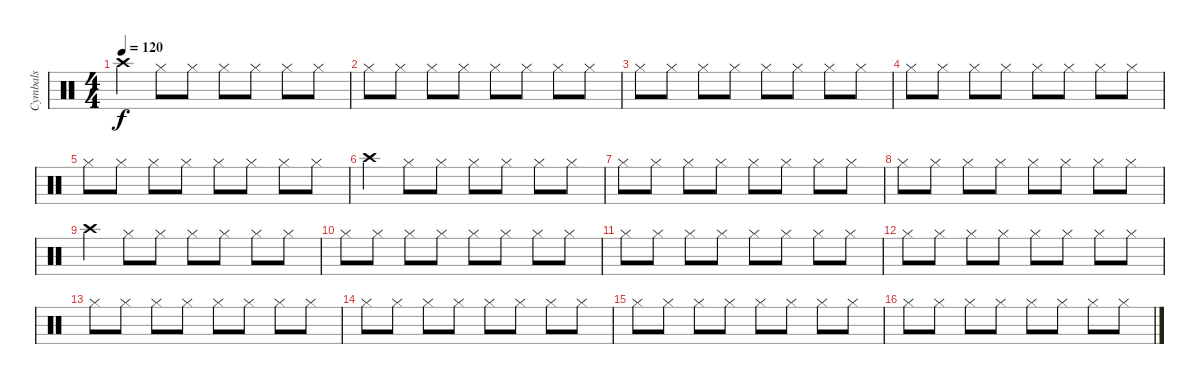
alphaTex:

\track ("Cymbals" "Cymbals") {instrument percussion}
\staff {score}
\articulation defaults
\ts (4 4)
\tempo 120
\clef neutral
\ks c "Crash high (hit)".4{dy f} "Hi-Hat (closed)".8 "Hi-Hat (closed)".8 "Hi-Hat (closed)".8 "Hi-Hat (closed)".8 "Hi-Hat (closed)".8 "Hi-Hat (closed)".8
|
"Hi-Hat (closed)".8 "Hi-Hat (closed)".8 "Hi-Hat (closed)".8 "Hi-Hat (closed)".8 "Hi-Hat (closed)".8 "Hi-Hat (closed)".8 "Hi-Hat (closed)".8 "Hi-Hat (closed)".8 |
"Hi-Hat (closed)".8 "Hi-Hat (closed)".8 "Hi-Hat (closed)".8 "Hi-Hat (closed)".8 "Hi-Hat (closed)".8 "Hi-Hat (closed)".8 "Hi-Hat (closed)".8 "Hi-Hat (closed)".8 |
"Hi-Hat (closed)".8 "Hi-Hat (closed)".8 "Hi-Hat (closed)".8 "Hi-Hat (closed)".8 "Hi-Hat (closed)".8 "Hi-Hat (closed)".8 "Hi-Hat (closed)".8 "Hi-Hat (closed)".8 |
"Hi-Hat (closed)".8 "Hi-Hat (closed)".8 "Hi-Hat (closed)".8 "Hi-Hat (closed)".8 "Hi-Hat (closed)".8 "Hi-Hat (closed)".8 "Hi-Hat (closed)".8 "Hi-Hat (closed)".8 |
"Crash high (hit)".4 "Hi-Hat (closed)".8 "Hi-Hat (closed)".8 "Hi-Hat (closed)".8 "Hi-Hat (closed)".8 "Hi-Hat (closed)".8 "Hi-Hat (closed)".8 |
"Hi-Hat (closed)".8 "Hi-Hat (closed)".8 "Hi-Hat (closed)".8 "Hi-Hat (closed)".8 "Hi-Hat (closed)".8 "Hi-Hat (closed)".8 "Hi-Hat (closed)".8 "Hi-Hat (closed)".8 |
"Hi-Hat (closed)".8 "Hi-Hat (closed)".8 "Hi-Hat (closed)".8 "Hi-Hat (closed)".8 "Hi-Hat (closed)".8 "Hi-Hat (closed)".8 "Hi-Hat (closed)".8 "Hi-Hat (closed)".8 |
"Crash high (hit)".4 "Hi-Hat (closed)".8 "Hi-Hat (closed)".8 "Hi-Hat (closed)".8 "Hi-Hat (closed)".8 "Hi-Hat (closed)".8 "Hi-Hat (closed)".8 |
"Hi-Hat (closed)".8 "Hi-Hat (closed)".8 "Hi-Hat (closed)".8 "Hi-Hat (closed)".8 "Hi-Hat (closed)".8 "Hi-Hat (closed)".8 "Hi-Hat (closed)".8 "Hi-Hat (closed)".8 |
"Hi-Hat (closed)".8 "Hi-Hat (closed)".8 "Hi-Hat (closed)".8 "Hi-Hat (closed)".8 "Hi-Hat (closed)".8 "Hi-Hat (closed)".8 "Hi-Hat (closed)".8 "Hi-Hat (closed)".8 |
"Hi-Hat (closed)".8 "Hi-Hat (closed)".8 "Hi-Hat (closed)".8 "Hi-Hat (closed)".8 "Hi-Hat (closed)".8 "Hi-Hat (closed)".8 "Hi-Hat (closed)".8 "Hi-Hat (closed)".8 |
"Hi-Hat (closed)".8 "Hi-Hat (closed)".8 "Hi-Hat (closed)".8 "Hi-Hat (closed)".8 "Hi-Hat (closed)".8 "Hi-Hat (closed)".8 "Hi-Hat (closed)".8 "Hi-Hat (closed)".8 |
"Hi-Hat (closed)".8 "Hi-Hat (closed)".8 "Hi-Hat (closed)".8 "Hi-Hat (closed)".8 "Hi-Hat (closed)".8 "Hi-Hat (closed)".8 "Hi-Hat (closed)".8 "Hi-Hat (closed)".8 |
"Hi-Hat (closed)".8 "Hi-Hat (closed)".8 "Hi-Hat (closed)".8 "Hi-Hat (closed)".8 "Hi-Hat (closed)".8 "Hi-Hat (closed)".8 "Hi-Hat (closed)".8 "Hi-Hat (closed)".8 |
"Hi-Hat (closed)".8 "Hi-Hat (closed)".8 "Hi-Hat (closed)".8 "Hi-Hat (closed)".8 "Hi-Hat (closed)".8 "Hi-Hat (closed)".8 "Hi-Hat (closed)".8 "Hi-Hat (closed)".8
